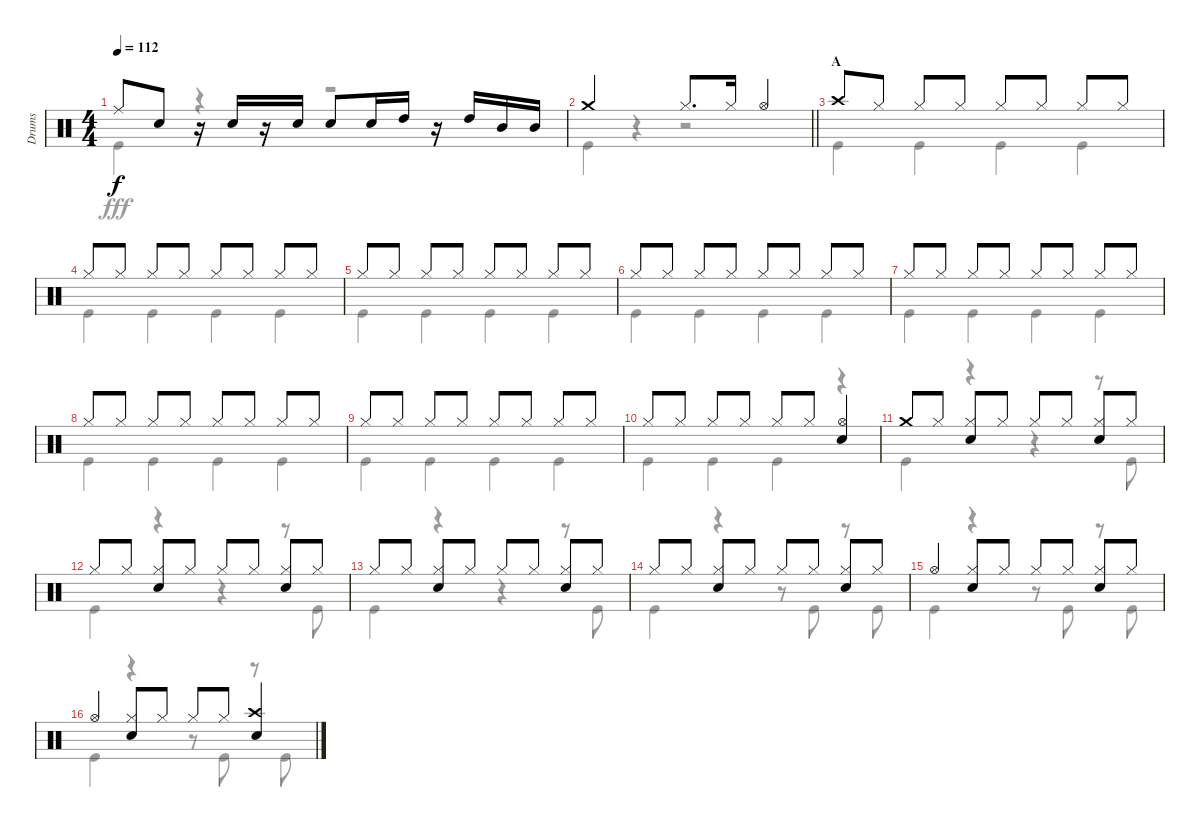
\track ("Drums" "Drums") {instrument percussion}
\staff {score}
\articulation defaults
\voice
\ts (4 4)
\tempo 112
\clef neutral
\ks c "Ride (middle)".8{dy f} "Snare (hit) 2".8
r.16 "Snare (hit) 2".16 r.16 "Snare (hit) 2".16 "Snare (hit) 2".8 "Snare (hit) 2".16 "High Tom (hit)".16 r.16 "High Tom (hit)".16 "Mid Tom (hit)".16 "Mid Tom (hit)".16 |
\barLineRight lightlight "Crash medium (hit)".2 "Hi-Hat (closed)".8{d} "Hi-Hat (closed)".16 "Hi-Hat (open)".4
|
\section ("" "A")
"Crash high (hit)".8 "Hi-Hat (closed)".8 "Hi-Hat (closed)".8 "Hi-Hat (closed)".8 "Hi-Hat (closed)".8 "Hi-Hat (closed)".8 "Hi-Hat (closed)".8 "Hi-Hat (closed)".8 |
"Hi-Hat (closed)".8 "Hi-Hat (closed)".8 "Hi-Hat (closed)".8 "Hi-Hat (closed)".8 "Hi-Hat (closed)".8 "Hi-Hat (closed)".8 "Hi-Hat (closed)".8 "Hi-Hat (closed)".8 |
"Hi-Hat (closed)".8 "Hi-Hat (closed)".8 "Hi-Hat (closed)".8 "Hi-Hat (closed)".8 "Hi-Hat (closed)".8 "Hi-Hat (closed)".8 "Hi-Hat (closed)".8 "Hi-Hat (closed)".8 |
"Hi-Hat (closed)".8 "Hi-Hat (closed)".8 "Hi-Hat (closed)".8 "Hi-Hat (closed)".8 "Hi-Hat (closed)".8 "Hi-Hat (closed)".8 "Hi-Hat (closed)".8 "Hi-Hat (closed)".8 |
"Hi-Hat (closed)".8 "Hi-Hat (closed)".8 "Hi-Hat (closed)".8 "Hi-Hat (closed)".8 "Hi-Hat (closed)".8 "Hi-Hat (closed)".8 "Hi-Hat (closed)".8 "Hi-Hat (closed)".8 |
"Hi-Hat (closed)".8 "Hi-Hat (closed)".8 "Hi-Hat (closed)".8 "Hi-Hat (closed)".8 "Hi-Hat (closed)".8 "Hi-Hat (closed)".8 "Hi-Hat (closed)".8 "Hi-Hat (closed)".8 |
"Hi-Hat (closed)".8 "Hi-Hat (closed)".8 "Hi-Hat (closed)".8 "Hi-Hat (closed)".8 "Hi-Hat (closed)".8 "Hi-Hat (closed)".8 "Hi-Hat (closed)".8 "Hi-Hat (closed)".8 |
"Hi-Hat (closed)".8 "Hi-Hat (closed)".8 "Hi-Hat (closed)".8 "Hi-Hat (closed)".8 "Hi-Hat (closed)".8 "Hi-Hat (closed)".8 ("Hi-Hat (open)" "Snare (hit) 2").4 |
"Crash medium (hit)".8 "Hi-Hat (closed)".8 ("Hi-Hat (closed)" "Snare (hit) 2").8 "Hi-Hat (closed)".8 "Hi-Hat (closed)".8 "Hi-Hat (closed)".8 ("Hi-Hat (closed)" "Snare (hit) 2").8 "Hi-Hat (closed)".8 |
"Hi-Hat (closed)".8 "Hi-Hat (closed)".8 ("Hi-Hat (closed)" "Snare (hit) 2").8 "Hi-Hat (closed)".8 "Hi-Hat (closed)".8 "Hi-Hat (closed)".8 ("Hi-Hat (closed)" "Snare (hit) 2").8 "Hi-Hat (closed)".8 |
"Hi-Hat (closed)".8 "Hi-Hat (closed)".8 ("Hi-Hat (closed)" "Snare (hit) 2").8 "Hi-Hat (closed)".8 "Hi-Hat (closed)".8 "Hi-Hat (closed)".8 ("Hi-Hat (closed)" "Snare (hit) 2").8 "Hi-Hat (closed)".8 |
"Hi-Hat (closed)".8 "Hi-Hat (closed)".8 ("Hi-Hat (closed)" "Snare (hit) 2").8 "Hi-Hat (closed)".8 "Hi-Hat (closed)".8 "Hi-Hat (closed)".8 ("Hi-Hat (closed)" "Snare (hit) 2").8 "Hi-Hat (closed)".8 |
"Hi-Hat (open)".4 ("Hi-Hat (closed)" "Snare (hit) 2").8 "Hi-Hat (closed)".8 "Hi-Hat (closed)".8 "Hi-Hat (closed)".8 ("Hi-Hat (closed)" "Snare (hit) 2").8 "Hi-Hat (closed)".8 |
"Hi-Hat (open)".4 ("Hi-Hat (closed)" "Snare (hit) 2").8 "Hi-Hat (closed)".8 "Hi-Hat (closed)".8 "Hi-Hat (closed)".8 ("Crash high (hit)" "Snare (hit) 2").4
\voice
\clef neutral
\ottava regular
\simile none
\ks c "Kick (hit)".4{dy fff}
r.4 r.2 |
\barLineRight lightlight "Kick (hit)".4
r.4 r.2 |
"Kick (hit)".4 "Kick (hit)".4 "Kick (hit)".4 "Kick (hit)".4 |
"Kick (hit)".4 "Kick (hit)".4 "Kick (hit)".4 "Kick (hit)".4 |
"Kick (hit)".4 "Kick (hit)".4 "Kick (hit)".4 "Kick (hit)".4 |
"Kick (hit)".4 "Kick (hit)".4 "Kick (hit)".4 "Kick (hit)".4 |
"Kick (hit)".4 "Kick (hit)".4 "Kick (hit)".4 "Kick (hit)".4 |
"Kick (hit)".4 "Kick (hit)".4 "Kick (hit)".4 "Kick (hit)".4 |
"Kick (hit)".4 "Kick (hit)".4 "Kick (hit)".4 "Kick (hit)".4 |
"Kick (hit)".4 "Kick (hit)".4 "Kick (hit)".4 r.4 |
"Kick (hit)".4 r.4 r.4 r.8 "Kick (hit)".8 |
"Kick (hit)".4 r.4 r.4 r.8 "Kick (hit)".8 |
"Kick (hit)".4 r.4 r.4 r.8 "Kick (hit)".8 |
"Kick (hit)".4 r.4 r.8 "Kick (hit)".8 r.8 "Kick (hit)".8 |
"Kick (hit)".4 r.4 r.8 "Kick (hit)".8 r.8 "Kick (hit)".8 |
"Kick (hit)".4 r.4 r.8 "Kick (hit)".8 r.8 "Kick (hit)".8
